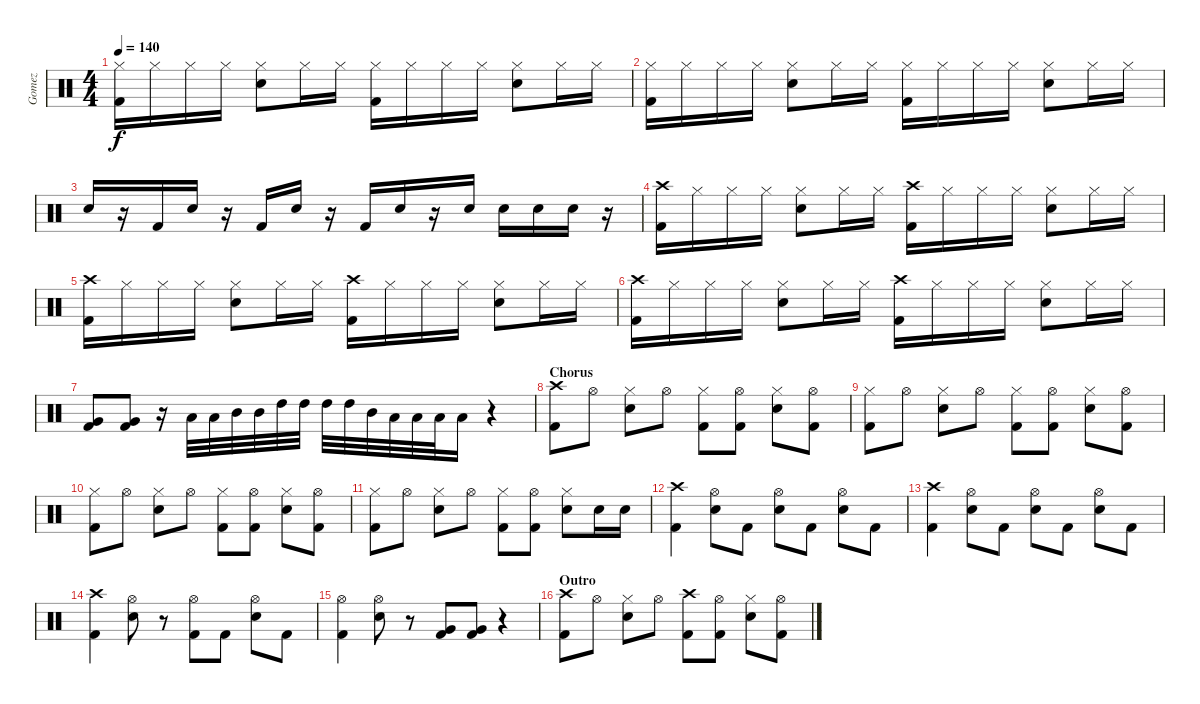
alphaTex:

\track ("Gomez" "Gomez") {instrument percussion}
\staff {score}
\articulation defaults
\ts (4 4)
\tempo 140
\clef neutral
\ks c
("Hi-Hat (closed)" "Kick (hit) 2").16{dy f} "Hi-Hat (closed)".16 "Hi-Hat (closed)".16 "Hi-Hat (closed)".16 ("Hi-Hat (closed)" "Electric Snare (hit)").8 "Hi-Hat (closed)".16 "Hi-Hat (closed)".16 ("Hi-Hat (closed)" "Kick (hit) 2").16 "Hi-Hat (closed)".16 "Hi-Hat (closed)".16 "Hi-Hat (closed)".16 ("Hi-Hat (closed)" "Electric Snare (hit)").8 "Hi-Hat (closed)".16 "Hi-Hat (closed)".16 |
("Hi-Hat (closed)" "Kick (hit) 2").16 "Hi-Hat (closed)".16 "Hi-Hat (closed)".16 "Hi-Hat (closed)".16 ("Hi-Hat (closed)" "Electric Snare (hit)").8 "Hi-Hat (closed)".16 "Hi-Hat (closed)".16 ("Hi-Hat (closed)" "Kick (hit) 2").16 "Hi-Hat (closed)".16 "Hi-Hat (closed)".16 "Hi-Hat (closed)".16 ("Hi-Hat (closed)" "Electric Snare (hit)").8 "Hi-Hat (closed)".16 "Hi-Hat (closed)".16 |
"Electric Snare (hit)".16{volume 16} r.16 "Kick (hit) 2".16 "Electric Snare (hit)".16 r.16 "Kick (hit) 2".16 "Electric Snare (hit)".16 r.16 "Kick (hit) 2".16 "Electric Snare (hit)".16 r.16 "Electric Snare (hit)".16 "Electric Snare (hit)".16 "Electric Snare (hit)".16 "Electric Snare (hit)".16 r.16 |
("Crash high (hit)" "Kick (hit) 2").16{volume 14} "Hi-Hat (closed)".16 "Hi-Hat (closed)".16 "Hi-Hat (closed)".16 ("Hi-Hat (closed)" "Electric Snare (hit)").8 "Hi-Hat (closed)".16 "Hi-Hat (closed)".16 ("Crash high (hit)" "Kick (hit) 2").16 "Hi-Hat (closed)".16 "Hi-Hat (closed)".16 "Hi-Hat (closed)".16 ("Hi-Hat (closed)" "Electric Snare (hit)").8 "Hi-Hat (closed)".16 "Hi-Hat (closed)".16 |
("Crash high (hit)" "Kick (hit) 2").16 "Hi-Hat (closed)".16 "Hi-Hat (closed)".16 "Hi-Hat (closed)".16 ("Hi-Hat (closed)" "Electric Snare (hit)").8 "Hi-Hat (closed)".16 "Hi-Hat (closed)".16 ("Crash high (hit)" "Kick (hit) 2").16 "Hi-Hat (closed)".16 "Hi-Hat (closed)".16 "Hi-Hat (closed)".16 ("Hi-Hat (closed)" "Electric Snare (hit)").8 "Hi-Hat (closed)".16 "Hi-Hat (closed)".16 |
("Crash high (hit)" "Kick (hit) 2").16 "Hi-Hat (closed)".16 "Hi-Hat (closed)".16 "Hi-Hat (closed)".16 ("Hi-Hat (closed)" "Electric Snare (hit)").8 "Hi-Hat (closed)".16 "Hi-Hat (closed)".16 ("Crash high (hit)" "Kick (hit) 2").16 "Hi-Hat (closed)".16 "Hi-Hat (closed)".16 "Hi-Hat (closed)".16 ("Hi-Hat (closed)" "Electric Snare (hit)").8 "Hi-Hat (closed)".16 "Hi-Hat (closed)".16 |
("Very Low Tom (hit)" "Kick (hit) 2").8{volume 16} ("Very Low Tom (hit)" "Kick (hit) 2").8 r.16 "Low Tom (hit)".32 "Low Tom (hit)".32 "Mid Tom (hit)".32 "Mid Tom (hit)".32 "High Tom (hit)".32 "High Tom (hit)".32 "High Tom (hit)".32 "High Tom (hit)".32 "Mid Tom (hit)".32 "Low Tom (hit)".32 "Low Tom (hit)".32 "Low Tom (hit)".32 "Low Tom (hit)".16 r.4 |
\section ("" "Chorus")
("Crash high (hit)" "Kick (hit) 2").8{volume 13} "Hi-Hat (open)".8 ("Hi-Hat (closed)" "Electric Snare (hit)").8 "Hi-Hat (open)".8 ("Hi-Hat (closed)" "Kick (hit) 2").8 ("Hi-Hat (open)" "Kick (hit) 2").8 ("Hi-Hat (closed)" "Electric Snare (hit)").8 ("Hi-Hat (open)" "Kick (hit) 2").8 |
("Hi-Hat (closed)" "Kick (hit) 2").8 "Hi-Hat (open)".8 ("Hi-Hat (closed)" "Electric Snare (hit)").8 "Hi-Hat (open)".8 ("Hi-Hat (closed)" "Kick (hit) 2").8 ("Hi-Hat (open)" "Kick (hit) 2").8 ("Hi-Hat (closed)" "Electric Snare (hit)").8 ("Hi-Hat (open)" "Kick (hit) 2").8 |
("Hi-Hat (closed)" "Kick (hit) 2").8 "Hi-Hat (open)".8 ("Hi-Hat (closed)" "Electric Snare (hit)").8 "Hi-Hat (open)".8 ("Hi-Hat (closed)" "Kick (hit) 2").8 ("Hi-Hat (open)" "Kick (hit) 2").8 ("Hi-Hat (closed)" "Electric Snare (hit)").8 ("Hi-Hat (open)" "Kick (hit) 2").8 |
("Hi-Hat (closed)" "Kick (hit) 2").8 "Hi-Hat (open)".8 ("Hi-Hat (closed)" "Electric Snare (hit)").8 "Hi-Hat (open)".8 ("Hi-Hat (closed)" "Kick (hit) 2").8 ("Hi-Hat (open)" "Kick (hit) 2").8 ("Hi-Hat (closed)" "Electric Snare (hit)").8 "Electric Snare (hit)".16 "Electric Snare (hit)".16 |
("Crash high (hit)" "Kick (hit) 2").4{volume 16} ("Hi-Hat (open)" "Electric Snare (hit)").8 "Kick (hit) 2".8 ("Hi-Hat (open)" "Electric Snare (hit)").8 "Kick (hit) 2".8 ("Hi-Hat (open)" "Electric Snare (hit)").8 "Kick (hit) 2".8 |
("Crash high (hit)" "Kick (hit) 2").4 ("Hi-Hat (open)" "Electric Snare (hit)").8 "Kick (hit) 2".8 ("Hi-Hat (open)" "Electric Snare (hit)").8 "Kick (hit) 2".8 ("Hi-Hat (open)" "Electric Snare (hit)").8 "Kick (hit) 2".8 |
("Crash high (hit)" "Kick (hit) 2").4{volume 13} ("Hi-Hat (open)" "Electric Snare (hit)").8 r.8 ("Hi-Hat (open)" "Kick (hit) 2").8 "Kick (hit) 2".8 ("Hi-Hat (open)" "Electric Snare (hit)").8 "Kick (hit) 2".8 |
("Hi-Hat (open)" "Kick (hit) 2").4 ("Hi-Hat (open)" "Electric Snare (hit)").8 r.8 ("Very Low Tom (hit)" "Kick (hit) 2").8{volume 16} ("Very Low Tom (hit)" "Kick (hit) 2").8 r.4 |
\section ("" "Outro")
("Crash high (hit)" "Kick (hit) 2").8{volume 16} "Hi-Hat (open)".8 ("Hi-Hat (closed)" "Electric Snare (hit)").8 "Hi-Hat (open)".8 ("Crash high (hit)" "Kick (hit) 2").8 ("Hi-Hat (open)" "Kick (hit) 2").8 ("Hi-Hat (closed)" "Electric Snare (hit)").8 ("Hi-Hat (open)" "Kick (hit) 2").8
